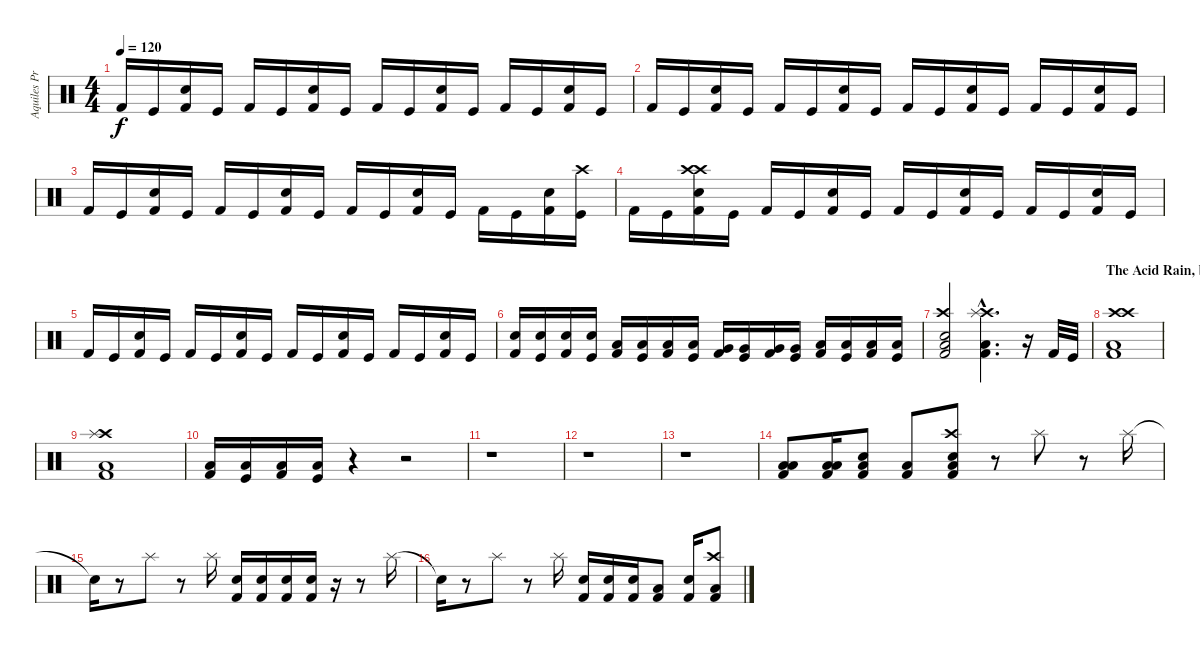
\track ("Aquiles Priester" "Aquiles Pr") {instrument percussion}
\staff {score}
\articulation defaults
\ts (4 4)
\tempo 120
\clef neutral
\ks c "Kick (hit) 2".16{dy f} "Kick (hit)".16
("Kick (hit) 2" "Electric Snare (hit)").16 "Kick (hit)".16 "Kick (hit) 2".16 "Kick (hit)".16 ("Kick (hit) 2" "Electric Snare (hit)").16 "Kick (hit)".16 "Kick (hit) 2".16 "Kick (hit)".16 ("Kick (hit) 2" "Electric Snare (hit)").16 "Kick (hit)".16 "Kick (hit) 2".16 "Kick (hit)".16 ("Kick (hit) 2" "Electric Snare (hit)").16 "Kick (hit)".16 |
"Kick (hit) 2".16 "Kick (hit)".16 ("Kick (hit) 2" "Electric Snare (hit)").16 "Kick (hit)".16 "Kick (hit) 2".16 "Kick (hit)".16 ("Kick (hit) 2" "Electric Snare (hit)").16 "Kick (hit)".16 "Kick (hit) 2".16 "Kick (hit)".16 ("Kick (hit) 2" "Electric Snare (hit)").16 "Kick (hit)".16 "Kick (hit) 2".16 "Kick (hit)".16 ("Kick (hit) 2" "Electric Snare (hit)").16 "Kick (hit)".16 |
"Kick (hit) 2".16 "Kick (hit)".16 ("Kick (hit) 2" "Electric Snare (hit)").16 "Kick (hit)".16 "Kick (hit) 2".16 "Kick (hit)".16 ("Kick (hit) 2" "Electric Snare (hit)").16 "Kick (hit)".16 "Kick (hit) 2".16 "Kick (hit)".16 ("Kick (hit) 2" "Electric Snare (hit)").16 "Kick (hit)".16 "Kick (hit) 2".16 "Kick (hit)".16 ("Kick (hit) 2" "Electric Snare (hit)").16 ("Kick (hit)" "Crash high (hit)").16 |
"Kick (hit) 2".16 "Kick (hit)".16 ("Kick (hit) 2" "Electric Snare (hit)" "Crash high (hit)" "Crash high (hit)").16 "Kick (hit)".16 "Kick (hit) 2".16 "Kick (hit)".16 ("Kick (hit) 2" "Electric Snare (hit)").16 "Kick (hit)".16 "Kick (hit) 2".16 "Kick (hit)".16 ("Kick (hit) 2" "Electric Snare (hit)").16 "Kick (hit)".16 "Kick (hit) 2".16 "Kick (hit)".16 ("Kick (hit) 2" "Electric Snare (hit)").16 "Kick (hit)".16 |
"Kick (hit) 2".16 "Kick (hit)".16 ("Kick (hit) 2" "Electric Snare (hit)").16 "Kick (hit)".16 "Kick (hit) 2".16 "Kick (hit)".16 ("Kick (hit) 2" "Electric Snare (hit)").16 "Kick (hit)".16 "Kick (hit) 2".16 "Kick (hit)".16 ("Kick (hit) 2" "Electric Snare (hit)").16 "Kick (hit)".16 "Kick (hit) 2".16 "Kick (hit)".16 ("Kick (hit) 2" "Electric Snare (hit)").16 "Kick (hit)".16 |
("Kick (hit) 2" "Electric Snare (hit)").16 ("Kick (hit)" "Electric Snare (hit)").16 ("Kick (hit) 2" "Electric Snare (hit)").16 ("Kick (hit)" "Electric Snare (hit)").16 ("Kick (hit) 2" "Low Tom (hit)").16 ("Kick (hit)" "Low Tom (hit)").16 ("Kick (hit) 2" "Low Tom (hit)").16 ("Kick (hit)" "Low Tom (hit)").16 ("Kick (hit) 2" "Very Low Tom (hit)").16 ("Kick (hit)" "Very Low Tom (hit)").16 ("Kick (hit) 2" "Very Low Tom (hit)").16 ("Kick (hit)" "Very Low Tom (hit)").16 ("Kick (hit) 2" "Low Floor Tom (hit)").16 ("Kick (hit)" "Low Floor Tom (hit)").16 ("Kick (hit) 2" "Low Floor Tom (hit)").16 ("Kick (hit)" "Low Floor Tom (hit)").16 |
("Kick (hit) 2" "Low Floor Tom (hit)" "Electric Snare (hit)" "Crash high (hit)").2 ("Kick (hit) 2"{hac} "Low Floor Tom (hit)"{hac} "Crash high (hit)"{hac} "Splash (hit)"{hac}).4{d} r.16 "Kick (hit) 2".32 "Kick (hit)".32 |
\section ("" "The Acid Rain, burn your eyes !!!")
("Kick (hit) 2" "Low Floor Tom (hit)" "Crash high (hit)" "Crash high (hit)").1 |
("Kick (hit) 2" "Low Floor Tom (hit)" "Crash high (hit)" "Splash (hit)").1 |
("Kick (hit) 2" "Low Floor Tom (hit)").16 ("Kick (hit)" "Low Floor Tom (hit)").16 ("Kick (hit) 2" "Low Floor Tom (hit)").16 ("Kick (hit)" "Low Floor Tom (hit)").16 r.4 r.2 |
r.1 |
r.1 |
r.1 |
("Kick (hit) 2" "Low Tom (hit)" "Low Floor Tom (hit)").8 ("Kick (hit) 2" "Low Tom (hit)" "Low Floor Tom (hit)").16 ("Kick (hit) 2" "Low Floor Tom (hit)" "Electric Snare (hit)").8 ("Kick (hit) 2" "Low Floor Tom (hit)").8 ("Kick (hit) 2" "Low Floor Tom (hit)" "Electric Snare (hit)" "Crash high (hit)").8 r.8 "Splash (hit)".8 r.8 "Splash (hit)".16 |
"Snare (hit)"{t}.16 r.8 "Splash (hit)".8 r.8 "Splash (hit)".16 ("Kick (hit) 2" "Electric Snare (hit)").16 ("Kick (hit) 2" "Electric Snare (hit)").16 ("Kick (hit) 2" "Electric Snare (hit)").16 ("Kick (hit) 2" "Electric Snare (hit)").16 r.16 r.8 "Splash (hit)".16 |
"Snare (hit)"{t}.16 r.8 "Splash (hit)".8 r.8 "Splash (hit)".16 ("Kick (hit) 2" "Electric Snare (hit)").16 ("Kick (hit) 2" "Electric Snare (hit)").16 ("Kick (hit) 2" "Electric Snare (hit)").16 ("Kick (hit) 2" "Low Floor Tom (hit)").8 ("Kick (hit) 2" "Electric Snare (hit)").16 ("Kick (hit) 2" "Low Floor Tom (hit)" "Crash high (hit)").8
